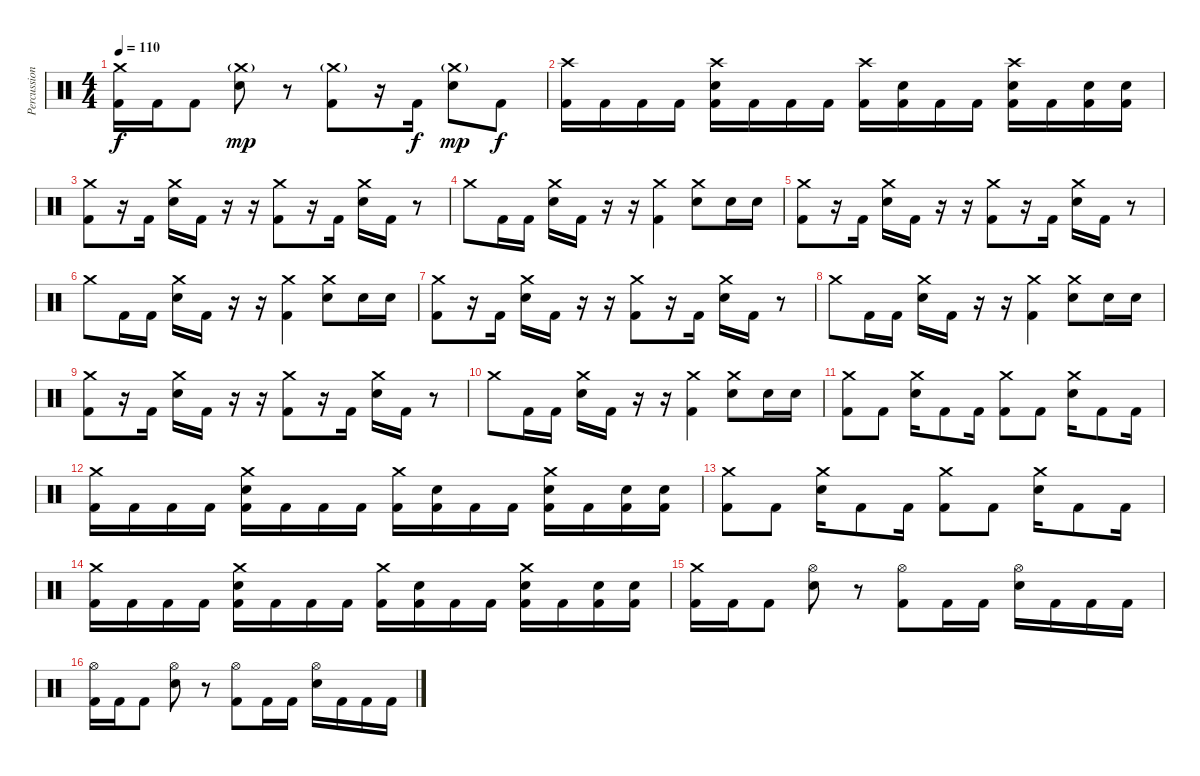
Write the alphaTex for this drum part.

\track ("Percussion" "Percussion") {instrument percussion}
\staff {score}
\articulation defaults
\ts (4 4)
\tempo 110
\clef neutral
\ks c
("Crash medium (hit)" "Kick (hit) 2").16{dy f} "Kick (hit) 2".16 "Kick (hit) 2".8 ("Crash medium (hit)"{g} "Electric Snare (hit)").8{dy mp} r.8 ("Crash medium (hit)"{g} "Kick (hit) 2").8 r.16 "Kick (hit) 2".16{dy f} ("Crash medium (hit)"{g} "Electric Snare (hit)").8{dy mp} "Kick (hit) 2".8{dy f} |
("Crash high (hit)" "Kick (hit) 2").16 "Kick (hit) 2".16 "Kick (hit) 2".16 "Kick (hit) 2".16 ("Crash high (hit)" "Electric Snare (hit)" "Kick (hit) 2").16 "Kick (hit) 2".16 "Kick (hit) 2".16 "Kick (hit) 2".16 ("Crash high (hit)" "Kick (hit) 2").16 ("Electric Snare (hit)" "Kick (hit) 2").16 "Kick (hit) 2".16 "Kick (hit) 2".16 ("Crash high (hit)" "Electric Snare (hit)" "Kick (hit) 2").16 "Kick (hit) 2".16 ("Electric Snare (hit)" "Kick (hit) 2").16 ("Electric Snare (hit)" "Kick (hit) 2").16 |
("Crash medium (hit)" "Kick (hit) 2").8 r.16 "Kick (hit) 2".16 ("Crash medium (hit)" "Electric Snare (hit)").16 "Kick (hit) 2".16 r.16 r.16 ("Crash medium (hit)" "Kick (hit) 2").8 r.16 "Kick (hit) 2".16 ("Crash medium (hit)" "Electric Snare (hit)").16 "Kick (hit) 2".16 r.8 |
"Crash medium (hit)".8 "Kick (hit) 2".16 "Kick (hit) 2".16 ("Crash medium (hit)" "Electric Snare (hit)").16 "Kick (hit) 2".16 r.16 r.16 ("Crash medium (hit)" "Kick (hit) 2").4 ("Crash medium (hit)" "Electric Snare (hit)").8 "Electric Snare (hit)".16 "Electric Snare (hit)".16 |
("Crash medium (hit)" "Kick (hit) 2").8 r.16 "Kick (hit) 2".16 ("Crash medium (hit)" "Electric Snare (hit)").16 "Kick (hit) 2".16 r.16 r.16 ("Crash medium (hit)" "Kick (hit) 2").8 r.16 "Kick (hit) 2".16 ("Crash medium (hit)" "Electric Snare (hit)").16 "Kick (hit) 2".16 r.8 |
"Crash medium (hit)".8 "Kick (hit) 2".16 "Kick (hit) 2".16 ("Crash medium (hit)" "Electric Snare (hit)").16 "Kick (hit) 2".16 r.16 r.16 ("Crash medium (hit)" "Kick (hit) 2").4 ("Crash medium (hit)" "Electric Snare (hit)").8 "Electric Snare (hit)".16 "Electric Snare (hit)".16 |
("Crash medium (hit)" "Kick (hit) 2").8 r.16 "Kick (hit) 2".16 ("Crash medium (hit)" "Electric Snare (hit)").16 "Kick (hit) 2".16 r.16 r.16 ("Crash medium (hit)" "Kick (hit) 2").8 r.16 "Kick (hit) 2".16 ("Crash medium (hit)" "Electric Snare (hit)").16 "Kick (hit) 2".16 r.8 |
"Crash medium (hit)".8 "Kick (hit) 2".16 "Kick (hit) 2".16 ("Crash medium (hit)" "Electric Snare (hit)").16 "Kick (hit) 2".16 r.16 r.16 ("Crash medium (hit)" "Kick (hit) 2").4 ("Crash medium (hit)" "Electric Snare (hit)").8 "Electric Snare (hit)".16 "Electric Snare (hit)".16 |
("Crash medium (hit)" "Kick (hit) 2").8 r.16 "Kick (hit) 2".16 ("Crash medium (hit)" "Electric Snare (hit)").16 "Kick (hit) 2".16 r.16 r.16 ("Crash medium (hit)" "Kick (hit) 2").8 r.16 "Kick (hit) 2".16 ("Crash medium (hit)" "Electric Snare (hit)").16 "Kick (hit) 2".16 r.8 |
"Crash medium (hit)".8 "Kick (hit) 2".16 "Kick (hit) 2".16 ("Crash medium (hit)" "Electric Snare (hit)").16 "Kick (hit) 2".16 r.16 r.16 ("Crash medium (hit)" "Kick (hit) 2").4 ("Crash medium (hit)" "Electric Snare (hit)").8 "Electric Snare (hit)".16 "Electric Snare (hit)".16 |
("Crash medium (hit)" "Kick (hit) 2").8 "Kick (hit) 2".8 ("Crash medium (hit)" "Electric Snare (hit)").16 "Kick (hit) 2".8 "Kick (hit) 2".16 ("Crash medium (hit)" "Kick (hit) 2").8 "Kick (hit) 2".8 ("Crash medium (hit)" "Electric Snare (hit)").16 "Kick (hit) 2".8 "Kick (hit) 2".16 |
("Crash medium (hit)" "Kick (hit) 2").16 "Kick (hit) 2".16 "Kick (hit) 2".16 "Kick (hit) 2".16 ("Crash medium (hit)" "Electric Snare (hit)" "Kick (hit) 2").16 "Kick (hit) 2".16 "Kick (hit) 2".16 "Kick (hit) 2".16 ("Crash medium (hit)" "Kick (hit) 2").16 ("Electric Snare (hit)" "Kick (hit) 2").16 "Kick (hit) 2".16 "Kick (hit) 2".16 ("Crash medium (hit)" "Electric Snare (hit)" "Kick (hit) 2").16 "Kick (hit) 2".16 ("Electric Snare (hit)" "Kick (hit) 2").16 ("Electric Snare (hit)" "Kick (hit) 2").16 |
("Crash medium (hit)" "Kick (hit) 2").8 "Kick (hit) 2".8 ("Crash medium (hit)" "Electric Snare (hit)").16 "Kick (hit) 2".8 "Kick (hit) 2".16 ("Crash medium (hit)" "Kick (hit) 2").8 "Kick (hit) 2".8 ("Crash medium (hit)" "Electric Snare (hit)").16 "Kick (hit) 2".8 "Kick (hit) 2".16 |
("Crash medium (hit)" "Kick (hit) 2").16 "Kick (hit) 2".16 "Kick (hit) 2".16 "Kick (hit) 2".16 ("Crash medium (hit)" "Electric Snare (hit)" "Kick (hit) 2").16 "Kick (hit) 2".16 "Kick (hit) 2".16 "Kick (hit) 2".16 ("Crash medium (hit)" "Kick (hit) 2").16 ("Electric Snare (hit)" "Kick (hit) 2").16 "Kick (hit) 2".16 "Kick (hit) 2".16 ("Crash medium (hit)" "Electric Snare (hit)" "Kick (hit) 2").16 "Kick (hit) 2".16 ("Electric Snare (hit)" "Kick (hit) 2").16 ("Electric Snare (hit)" "Kick (hit) 2").16 |
("Crash medium (hit)" "Kick (hit) 2").16 "Kick (hit) 2".16 "Kick (hit) 2".8 ("Hi-Hat (open)" "Electric Snare (hit)").8 r.8 ("Hi-Hat (open)" "Kick (hit) 2").8 "Kick (hit) 2".16 "Kick (hit) 2".16 ("Hi-Hat (open)" "Electric Snare (hit)").16 "Kick (hit) 2".16 "Kick (hit) 2".16 "Kick (hit) 2".16 |
("Hi-Hat (open)" "Kick (hit) 2").16 "Kick (hit) 2".16 "Kick (hit) 2".8 ("Hi-Hat (open)" "Electric Snare (hit)").8 r.8 ("Hi-Hat (open)" "Kick (hit) 2").8 "Kick (hit) 2".16 "Kick (hit) 2".16 ("Hi-Hat (open)" "Electric Snare (hit)").16 "Kick (hit) 2".16 "Kick (hit) 2".16 "Kick (hit) 2".16
